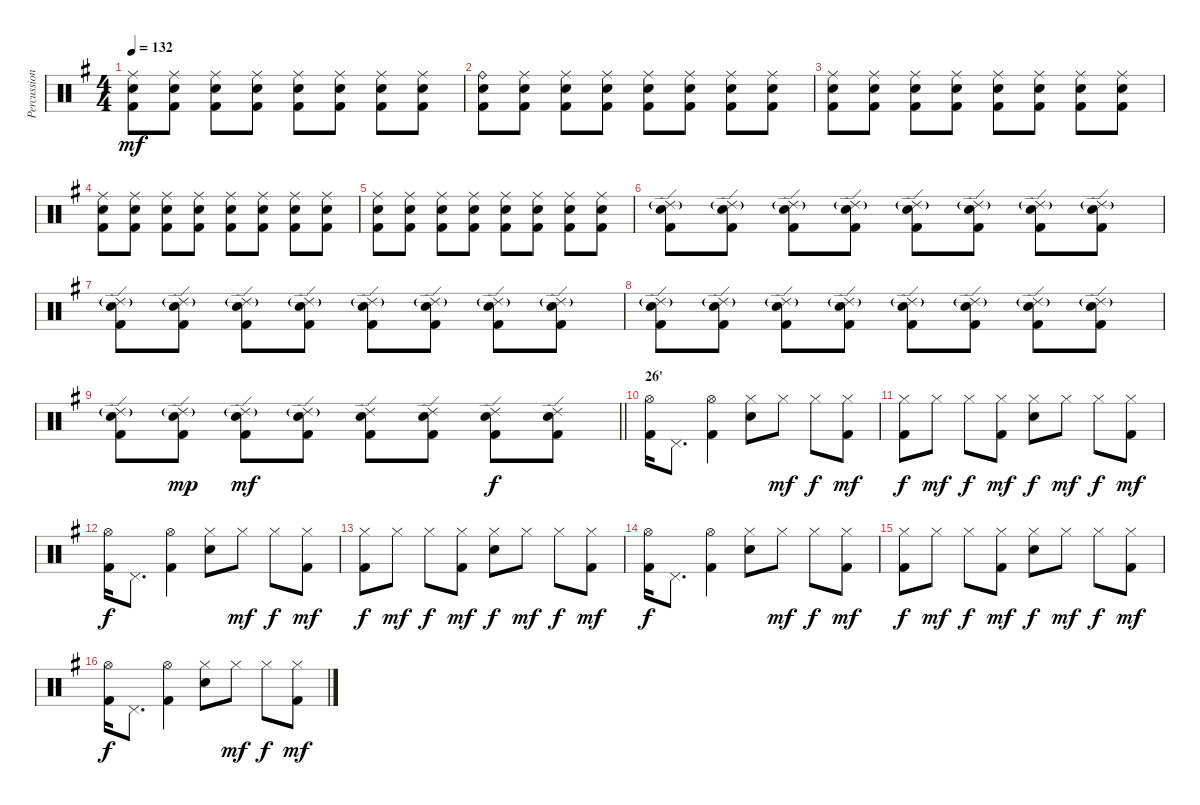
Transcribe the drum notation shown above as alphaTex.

\track ("Percussion" "Percussion") {instrument percussion}
\staff {score}
\articulation defaults
\ts (4 4)
\tempo 132
\clef neutral
\ks eminor
("Ride (middle)" "Snare (hit) 2" "Kick (hit) 2").8{dy mf} ("Ride (middle)" "Snare (hit) 2" "Kick (hit) 2").8 ("Ride (middle)" "Snare (hit) 2" "Kick (hit) 2").8 ("Ride (middle)" "Snare (hit) 2" "Kick (hit) 2").8 ("Ride (middle)" "Snare (hit) 2" "Kick (hit) 2").8 ("Ride (middle)" "Snare (hit) 2" "Kick (hit) 2").8 ("Ride (middle)" "Snare (hit) 2" "Kick (hit) 2").8 ("Ride (middle)" "Snare (hit) 2" "Kick (hit) 2").8 |
("Ride (bell)" "Snare (hit) 2" "Kick (hit) 2").8 ("Ride (middle)" "Snare (hit) 2" "Kick (hit) 2").8 ("Ride (middle)" "Snare (hit) 2" "Kick (hit) 2").8 ("Ride (middle)" "Snare (hit) 2" "Kick (hit) 2").8 ("Ride (middle)" "Snare (hit) 2" "Kick (hit) 2").8 ("Ride (middle)" "Snare (hit) 2" "Kick (hit) 2").8 ("Ride (middle)" "Snare (hit) 2" "Kick (hit) 2").8 ("Ride (middle)" "Snare (hit) 2" "Kick (hit) 2").8 |
("Ride (middle)" "Snare (hit) 2" "Kick (hit) 2").8 ("Ride (middle)" "Snare (hit) 2" "Kick (hit) 2").8 ("Ride (middle)" "Snare (hit) 2" "Kick (hit) 2").8 ("Ride (middle)" "Snare (hit) 2" "Kick (hit) 2").8 ("Ride (middle)" "Snare (hit) 2" "Kick (hit) 2").8 ("Ride (middle)" "Snare (hit) 2" "Kick (hit) 2").8 ("Ride (middle)" "Snare (hit) 2" "Kick (hit) 2").8 ("Ride (middle)" "Snare (hit) 2" "Kick (hit) 2").8 |
("Ride (middle)" "Snare (hit) 2" "Kick (hit) 2").8 ("Ride (middle)" "Snare (hit) 2" "Kick (hit) 2").8 ("Ride (middle)" "Snare (hit) 2" "Kick (hit) 2").8 ("Ride (middle)" "Snare (hit) 2" "Kick (hit) 2").8 ("Ride (middle)" "Snare (hit) 2" "Kick (hit) 2").8 ("Ride (middle)" "Snare (hit) 2" "Kick (hit) 2").8 ("Ride (middle)" "Snare (hit) 2" "Kick (hit) 2").8 ("Ride (middle)" "Snare (hit) 2" "Kick (hit) 2").8 |
("Ride (middle)" "Snare (hit) 2" "Kick (hit) 2").8 ("Ride (middle)" "Snare (hit) 2" "Kick (hit) 2").8 ("Ride (middle)" "Snare (hit) 2" "Kick (hit) 2").8 ("Ride (middle)" "Snare (hit) 2" "Kick (hit) 2").8 ("Ride (middle)" "Snare (hit) 2" "Kick (hit) 2").8 ("Ride (middle)" "Snare (hit) 2" "Kick (hit) 2").8 ("Ride (middle)" "Snare (hit) 2" "Kick (hit) 2").8 ("Ride (middle)" "Snare (hit) 2" "Kick (hit) 2").8 |
("Ride (edge) 2"{g} "Snare (hit) 2" "Kick (hit) 2").8 ("Ride (edge) 2"{g} "Snare (hit) 2" "Kick (hit) 2").8 ("Ride (edge) 2"{g} "Snare (hit) 2" "Kick (hit) 2").8 ("Ride (edge) 2"{g} "Snare (hit) 2" "Kick (hit) 2").8 ("Ride (edge) 2"{g} "Snare (hit) 2" "Kick (hit) 2").8 ("Ride (edge) 2"{g} "Snare (hit) 2" "Kick (hit) 2").8 ("Ride (edge) 2"{g} "Snare (hit) 2" "Kick (hit) 2").8 ("Ride (edge) 2"{g} "Snare (hit) 2" "Kick (hit) 2").8 |
("Ride (edge) 2"{g} "Snare (hit) 2" "Kick (hit) 2").8 ("Ride (edge) 2"{g} "Snare (hit) 2" "Kick (hit) 2").8 ("Ride (edge) 2"{g} "Snare (hit) 2" "Kick (hit) 2").8 ("Ride (edge) 2"{g} "Snare (hit) 2" "Kick (hit) 2").8 ("Ride (edge) 2"{g} "Snare (hit) 2" "Kick (hit) 2").8 ("Ride (edge) 2"{g} "Snare (hit) 2" "Kick (hit) 2").8 ("Ride (edge) 2"{g} "Snare (hit) 2" "Kick (hit) 2").8 ("Ride (edge) 2"{g} "Snare (hit) 2" "Kick (hit) 2").8 |
("Ride (edge) 2"{g} "Snare (hit) 2" "Kick (hit) 2").8 ("Ride (edge) 2"{g} "Snare (hit) 2" "Kick (hit) 2").8 ("Ride (edge) 2"{g} "Snare (hit) 2" "Kick (hit) 2").8 ("Ride (edge) 2"{g} "Snare (hit) 2" "Kick (hit) 2").8 ("Ride (edge) 2"{g} "Snare (hit) 2" "Kick (hit) 2").8 ("Ride (edge) 2"{g} "Snare (hit) 2" "Kick (hit) 2").8 ("Ride (edge) 2"{g} "Snare (hit) 2" "Kick (hit) 2").8 ("Ride (edge) 2"{g} "Snare (hit) 2" "Kick (hit) 2").8 |
\barLineRight lightlight
("Ride (edge) 2"{g} "Snare (hit) 2" "Kick (hit) 2").8 ("Ride (edge) 2"{g} "Snare (hit) 2" "Kick (hit) 2").8{dy mp} ("Ride (edge) 2"{g} "Snare (hit) 2" "Kick (hit) 2").8{dy mf} ("Ride (edge) 2"{g} "Snare (hit) 2" "Kick (hit) 2").8 ("Ride (edge) 2" "Snare (hit) 2" "Kick (hit) 2").8 ("Ride (edge) 2" "Snare (hit) 2" "Kick (hit) 2").8 ("Ride (edge) 2" "Snare (hit) 2" "Kick (hit) 2").8{dy f} ("Ride (edge) 2" "Snare (hit) 2" "Kick (hit) 2").8 |
\section ("" "26'")
("Hi-Hat (open)" "Kick (hit) 2").16 "Pedal Hi-Hat (hit)".8{d} ("Hi-Hat (open)" "Kick (hit) 2").4 ("Hi-Hat (closed)" "Snare (hit) 2").8 "Hi-Hat (closed)".8{dy mf} "Hi-Hat (closed)".8{dy f} ("Hi-Hat (closed)" "Kick (hit) 2").8{dy mf} |
("Hi-Hat (closed)" "Kick (hit) 2").8{dy f} "Hi-Hat (closed)".8{dy mf} "Hi-Hat (closed)".8{dy f} ("Hi-Hat (closed)" "Kick (hit) 2").8{dy mf} ("Hi-Hat (closed)" "Snare (hit) 2").8{dy f} "Hi-Hat (closed)".8{dy mf} "Hi-Hat (closed)".8{dy f} ("Hi-Hat (closed)" "Kick (hit) 2").8{dy mf} |
("Hi-Hat (open)" "Kick (hit) 2").16{dy f} "Pedal Hi-Hat (hit)".8{d} ("Hi-Hat (open)" "Kick (hit) 2").4 ("Hi-Hat (closed)" "Snare (hit) 2").8 "Hi-Hat (closed)".8{dy mf} "Hi-Hat (closed)".8{dy f} ("Hi-Hat (closed)" "Kick (hit) 2").8{dy mf} |
("Hi-Hat (closed)" "Kick (hit) 2").8{dy f} "Hi-Hat (closed)".8{dy mf} "Hi-Hat (closed)".8{dy f} ("Hi-Hat (closed)" "Kick (hit) 2").8{dy mf} ("Hi-Hat (closed)" "Snare (hit) 2").8{dy f} "Hi-Hat (closed)".8{dy mf} "Hi-Hat (closed)".8{dy f} ("Hi-Hat (closed)" "Kick (hit) 2").8{dy mf} |
("Hi-Hat (open)" "Kick (hit) 2").16{dy f} "Pedal Hi-Hat (hit)".8{d} ("Hi-Hat (open)" "Kick (hit) 2").4 ("Hi-Hat (closed)" "Snare (hit) 2").8 "Hi-Hat (closed)".8{dy mf} "Hi-Hat (closed)".8{dy f} ("Hi-Hat (closed)" "Kick (hit) 2").8{dy mf} |
("Hi-Hat (closed)" "Kick (hit) 2").8{dy f} "Hi-Hat (closed)".8{dy mf} "Hi-Hat (closed)".8{dy f} ("Hi-Hat (closed)" "Kick (hit) 2").8{dy mf} ("Hi-Hat (closed)" "Snare (hit) 2").8{dy f} "Hi-Hat (closed)".8{dy mf} "Hi-Hat (closed)".8{dy f} ("Hi-Hat (closed)" "Kick (hit) 2").8{dy mf} |
("Hi-Hat (open)" "Kick (hit) 2").16{dy f} "Pedal Hi-Hat (hit)".8{d} ("Hi-Hat (open)" "Kick (hit) 2").4 ("Hi-Hat (closed)" "Snare (hit) 2").8 "Hi-Hat (closed)".8{dy mf} "Hi-Hat (closed)".8{dy f} ("Hi-Hat (closed)" "Kick (hit) 2").8{dy mf}
